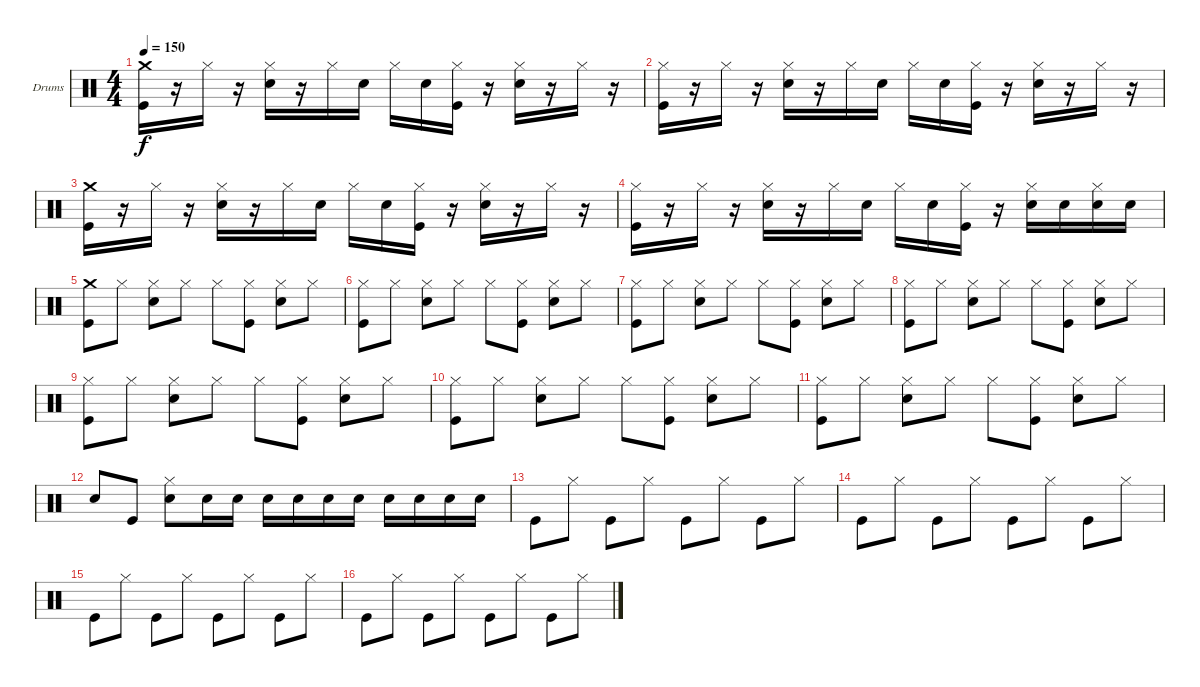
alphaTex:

\defaultSystemsLayout 4
\bracketExtendMode groupsimilarinstruments
\firstSystemTrackNameOrientation horizontal
\otherSystemsTrackNameOrientation horizontal
\track ("Drumkit" "Drums") {instrument percussion}
\staff {score}
\articulation defaults
\ts (4 4)
\tempo 150
\clef neutral
\ks c
("Kick (hit)" "Crash medium (hit)").16{dy f} r.16 "Hi-Hat (closed)".16 r.16 ("Snare (hit) 2" "Hi-Hat (closed)").16 r.16 "Hi-Hat (closed)".16 "Snare (hit) 2".16 "Hi-Hat (closed)".16 "Snare (hit) 2".16 ("Kick (hit)" "Hi-Hat (closed)").16 r.16 ("Snare (hit) 2" "Hi-Hat (closed)").16 r.16 "Hi-Hat (closed)".16 r.16 |
("Kick (hit)" "Hi-Hat (closed)").16 r.16 "Hi-Hat (closed)".16 r.16 ("Snare (hit) 2" "Hi-Hat (closed)").16 r.16 "Hi-Hat (closed)".16 "Snare (hit) 2".16 "Hi-Hat (closed)".16 "Snare (hit) 2".16 ("Kick (hit)" "Hi-Hat (closed)").16 r.16 ("Snare (hit) 2" "Hi-Hat (closed)").16 r.16 "Hi-Hat (closed)".16 r.16 |
("Kick (hit)" "Crash medium (hit)").16 r.16 "Hi-Hat (closed)".16 r.16 ("Snare (hit) 2" "Hi-Hat (closed)").16 r.16 "Hi-Hat (closed)".16 "Snare (hit) 2".16 "Hi-Hat (closed)".16 "Snare (hit) 2".16 ("Kick (hit)" "Hi-Hat (closed)").16 r.16 ("Snare (hit) 2" "Hi-Hat (closed)").16 r.16 "Hi-Hat (closed)".16 r.16 |
("Kick (hit)" "Hi-Hat (closed)").16 r.16 "Hi-Hat (closed)".16 r.16 ("Snare (hit) 2" "Hi-Hat (closed)").16 r.16 "Hi-Hat (closed)".16 "Snare (hit) 2".16 "Hi-Hat (closed)".16 "Snare (hit) 2".16 ("Kick (hit)" "Hi-Hat (closed)").16 r.16 ("Snare (hit) 2" "Hi-Hat (closed)").16 "Snare (hit) 2".16 ("Snare (hit) 2" "Hi-Hat (closed)").16 "Snare (hit) 2".16 |
("Kick (hit)" "Crash medium (hit)").8 "Hi-Hat (closed)".8 ("Snare (hit) 2" "Hi-Hat (closed)").8 "Hi-Hat (closed)".8 "Hi-Hat (closed)".8 ("Kick (hit)" "Hi-Hat (closed)").8 ("Snare (hit) 2" "Hi-Hat (closed)").8 "Hi-Hat (closed)".8 |
("Kick (hit)" "Hi-Hat (closed)").8 "Hi-Hat (closed)".8 ("Snare (hit) 2" "Hi-Hat (closed)").8 "Hi-Hat (closed)".8 "Hi-Hat (closed)".8 ("Kick (hit)" "Hi-Hat (closed)").8 ("Snare (hit) 2" "Hi-Hat (closed)").8 "Hi-Hat (closed)".8 |
("Kick (hit)" "Hi-Hat (closed)").8 "Hi-Hat (closed)".8 ("Snare (hit) 2" "Hi-Hat (closed)").8 "Hi-Hat (closed)".8 "Hi-Hat (closed)".8 ("Kick (hit)" "Hi-Hat (closed)").8 ("Snare (hit) 2" "Hi-Hat (closed)").8 "Hi-Hat (closed)".8 |
("Kick (hit)" "Hi-Hat (closed)").8 "Hi-Hat (closed)".8 ("Snare (hit) 2" "Hi-Hat (closed)").8 "Hi-Hat (closed)".8 "Hi-Hat (closed)".8 ("Kick (hit)" "Hi-Hat (closed)").8 ("Snare (hit) 2" "Hi-Hat (closed)").8 "Hi-Hat (closed)".8 |
("Kick (hit)" "Hi-Hat (closed)").8 "Hi-Hat (closed)".8 ("Snare (hit) 2" "Hi-Hat (closed)").8 "Hi-Hat (closed)".8 "Hi-Hat (closed)".8 ("Kick (hit)" "Hi-Hat (closed)").8 ("Snare (hit) 2" "Hi-Hat (closed)").8 "Hi-Hat (closed)".8 |
("Kick (hit)" "Hi-Hat (closed)").8 "Hi-Hat (closed)".8 ("Snare (hit) 2" "Hi-Hat (closed)").8 "Hi-Hat (closed)".8 "Hi-Hat (closed)".8 ("Kick (hit)" "Hi-Hat (closed)").8 ("Snare (hit) 2" "Hi-Hat (closed)").8 "Hi-Hat (closed)".8 |
("Kick (hit)" "Hi-Hat (closed)").8 "Hi-Hat (closed)".8 ("Snare (hit) 2" "Hi-Hat (closed)").8 "Hi-Hat (closed)".8 "Hi-Hat (closed)".8 ("Kick (hit)" "Hi-Hat (closed)").8 ("Snare (hit) 2" "Hi-Hat (closed)").8 "Hi-Hat (closed)".8 |
"Snare (hit) 2".8 "Kick (hit)".8 ("Snare (hit) 2" "Hi-Hat (closed)").8 "Snare (hit) 2".16 "Snare (hit) 2".16 "Snare (hit) 2".16 "Snare (hit) 2".16 "Snare (hit) 2".16 "Snare (hit) 2".16 "Snare (hit) 2".16 "Snare (hit) 2".16 "Snare (hit) 2".16 "Snare (hit) 2".16 |
"Kick (hit)".8 "Hi-Hat (closed)".8 "Kick (hit)".8 "Hi-Hat (closed)".8 "Kick (hit)".8 "Hi-Hat (closed)".8 "Kick (hit)".8 "Hi-Hat (closed)".8 |
"Kick (hit)".8 "Hi-Hat (closed)".8 "Kick (hit)".8 "Hi-Hat (closed)".8 "Kick (hit)".8 "Hi-Hat (closed)".8 "Kick (hit)".8 "Hi-Hat (closed)".8 |
"Kick (hit)".8 "Hi-Hat (closed)".8 "Kick (hit)".8 "Hi-Hat (closed)".8 "Kick (hit)".8 "Hi-Hat (closed)".8 "Kick (hit)".8 "Hi-Hat (closed)".8 |
"Kick (hit)".8 "Hi-Hat (closed)".8 "Kick (hit)".8 "Hi-Hat (closed)".8 "Kick (hit)".8 "Hi-Hat (closed)".8 "Kick (hit)".8 "Hi-Hat (closed)".8
